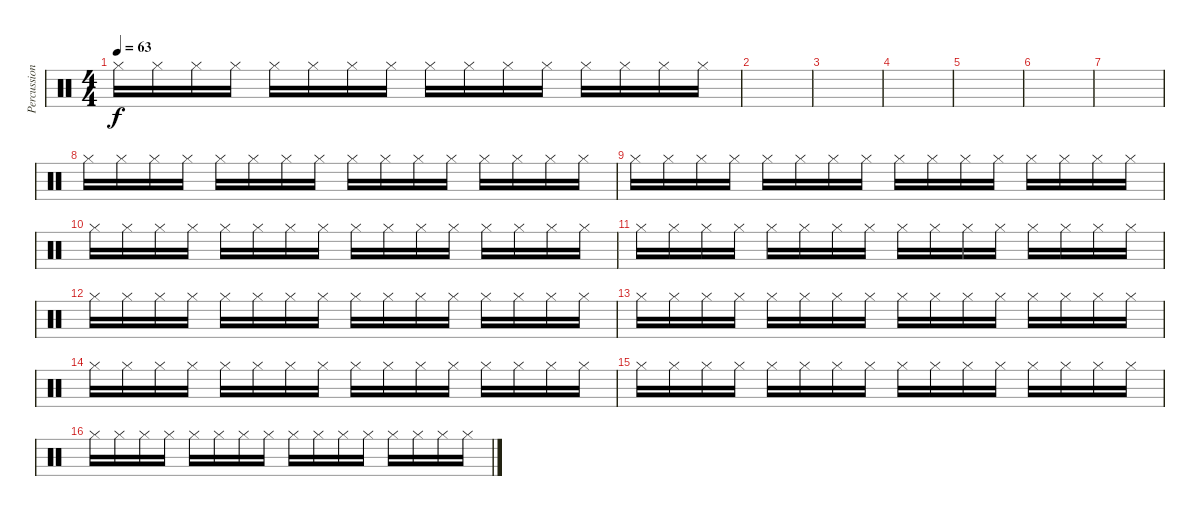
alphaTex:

\track ("Percussion" "Percussion") {instrument percussion}
\staff {score}
\articulation defaults
\ts (4 4)
\tempo 63
\clef neutral
\ks c "Hi-Hat (closed)".16{dy f} "Hi-Hat (closed)".16 "Hi-Hat (closed)".16 "Hi-Hat (closed)".16 "Hi-Hat (closed)".16 "Hi-Hat (closed)".16 "Hi-Hat (closed)".16 "Hi-Hat (closed)".16 "Hi-Hat (closed)".16 "Hi-Hat (closed)".16 "Hi-Hat (closed)".16 "Hi-Hat (closed)".16 "Hi-Hat (closed)".16 "Hi-Hat (closed)".16 "Hi-Hat (closed)".16 "Hi-Hat (closed)".16
|
|
|
|
|
|
|
"Hi-Hat (closed)".16 "Hi-Hat (closed)".16 "Hi-Hat (closed)".16 "Hi-Hat (closed)".16 "Hi-Hat (closed)".16 "Hi-Hat (closed)".16 "Hi-Hat (closed)".16 "Hi-Hat (closed)".16 "Hi-Hat (closed)".16 "Hi-Hat (closed)".16 "Hi-Hat (closed)".16 "Hi-Hat (closed)".16 "Hi-Hat (closed)".16 "Hi-Hat (closed)".16 "Hi-Hat (closed)".16 "Hi-Hat (closed)".16 |
"Hi-Hat (closed)".16 "Hi-Hat (closed)".16 "Hi-Hat (closed)".16 "Hi-Hat (closed)".16 "Hi-Hat (closed)".16 "Hi-Hat (closed)".16 "Hi-Hat (closed)".16 "Hi-Hat (closed)".16 "Hi-Hat (closed)".16 "Hi-Hat (closed)".16 "Hi-Hat (closed)".16 "Hi-Hat (closed)".16 "Hi-Hat (closed)".16 "Hi-Hat (closed)".16 "Hi-Hat (closed)".16 "Hi-Hat (closed)".16 |
"Hi-Hat (closed)".16 "Hi-Hat (closed)".16 "Hi-Hat (closed)".16 "Hi-Hat (closed)".16 "Hi-Hat (closed)".16 "Hi-Hat (closed)".16 "Hi-Hat (closed)".16 "Hi-Hat (closed)".16 "Hi-Hat (closed)".16 "Hi-Hat (closed)".16 "Hi-Hat (closed)".16 "Hi-Hat (closed)".16 "Hi-Hat (closed)".16 "Hi-Hat (closed)".16 "Hi-Hat (closed)".16 "Hi-Hat (closed)".16 |
"Hi-Hat (closed)".16 "Hi-Hat (closed)".16 "Hi-Hat (closed)".16 "Hi-Hat (closed)".16 "Hi-Hat (closed)".16 "Hi-Hat (closed)".16 "Hi-Hat (closed)".16 "Hi-Hat (closed)".16 "Hi-Hat (closed)".16 "Hi-Hat (closed)".16 "Hi-Hat (closed)".16 "Hi-Hat (closed)".16 "Hi-Hat (closed)".16 "Hi-Hat (closed)".16 "Hi-Hat (closed)".16 "Hi-Hat (closed)".16 |
"Hi-Hat (closed)".16 "Hi-Hat (closed)".16 "Hi-Hat (closed)".16 "Hi-Hat (closed)".16 "Hi-Hat (closed)".16 "Hi-Hat (closed)".16 "Hi-Hat (closed)".16 "Hi-Hat (closed)".16 "Hi-Hat (closed)".16 "Hi-Hat (closed)".16 "Hi-Hat (closed)".16 "Hi-Hat (closed)".16 "Hi-Hat (closed)".16 "Hi-Hat (closed)".16 "Hi-Hat (closed)".16 "Hi-Hat (closed)".16 |
"Hi-Hat (closed)".16 "Hi-Hat (closed)".16 "Hi-Hat (closed)".16 "Hi-Hat (closed)".16 "Hi-Hat (closed)".16 "Hi-Hat (closed)".16 "Hi-Hat (closed)".16 "Hi-Hat (closed)".16 "Hi-Hat (closed)".16 "Hi-Hat (closed)".16 "Hi-Hat (closed)".16 "Hi-Hat (closed)".16 "Hi-Hat (closed)".16 "Hi-Hat (closed)".16 "Hi-Hat (closed)".16 "Hi-Hat (closed)".16 |
"Hi-Hat (closed)".16 "Hi-Hat (closed)".16 "Hi-Hat (closed)".16 "Hi-Hat (closed)".16 "Hi-Hat (closed)".16 "Hi-Hat (closed)".16 "Hi-Hat (closed)".16 "Hi-Hat (closed)".16 "Hi-Hat (closed)".16 "Hi-Hat (closed)".16 "Hi-Hat (closed)".16 "Hi-Hat (closed)".16 "Hi-Hat (closed)".16 "Hi-Hat (closed)".16 "Hi-Hat (closed)".16 "Hi-Hat (closed)".16 |
"Hi-Hat (closed)".16 "Hi-Hat (closed)".16 "Hi-Hat (closed)".16 "Hi-Hat (closed)".16 "Hi-Hat (closed)".16 "Hi-Hat (closed)".16 "Hi-Hat (closed)".16 "Hi-Hat (closed)".16 "Hi-Hat (closed)".16 "Hi-Hat (closed)".16 "Hi-Hat (closed)".16 "Hi-Hat (closed)".16 "Hi-Hat (closed)".16 "Hi-Hat (closed)".16 "Hi-Hat (closed)".16 "Hi-Hat (closed)".16 |
"Hi-Hat (closed)".16 "Hi-Hat (closed)".16 "Hi-Hat (closed)".16 "Hi-Hat (closed)".16 "Hi-Hat (closed)".16 "Hi-Hat (closed)".16 "Hi-Hat (closed)".16 "Hi-Hat (closed)".16 "Hi-Hat (closed)".16 "Hi-Hat (closed)".16 "Hi-Hat (closed)".16 "Hi-Hat (closed)".16 "Hi-Hat (closed)".16 "Hi-Hat (closed)".16 "Hi-Hat (closed)".16 "Hi-Hat (closed)".16
